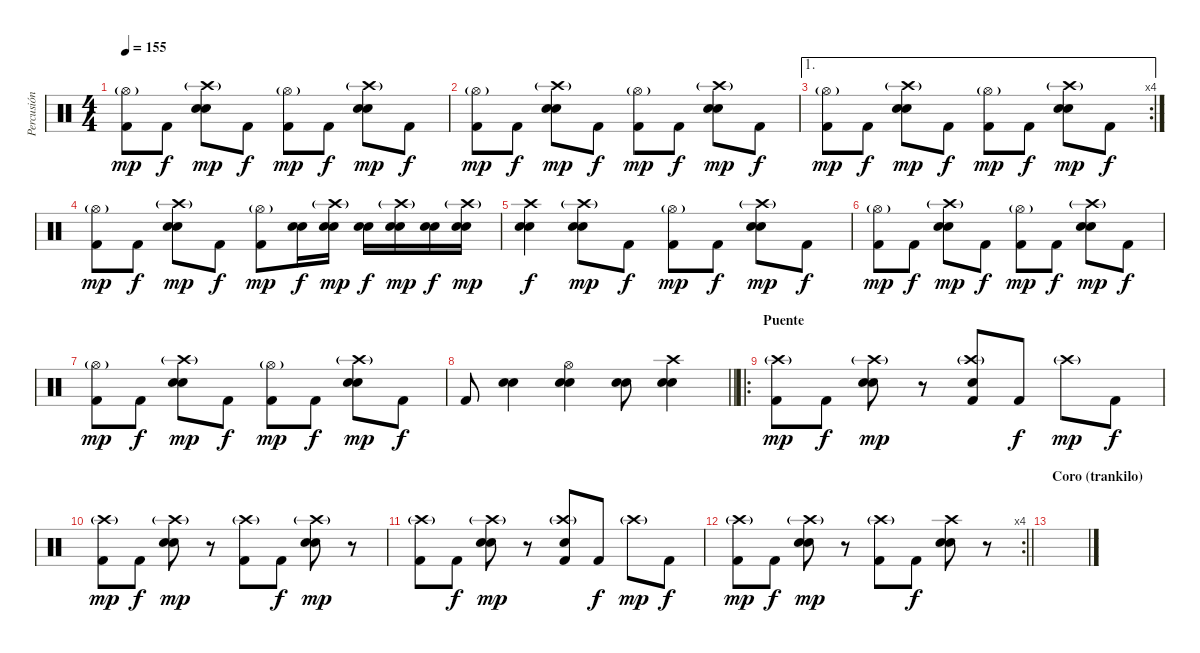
\track ("Percusión" "Percusión") {instrument percussion}
\staff {score}
\articulation defaults
\ts (4 4)
\tempo 155
\clef neutral
\ks c
("Hi-Hat (open)"{g} "Kick (hit) 2").8{dy mp} "Kick (hit) 2".8{dy f} ("Crash high (hit)"{g} "Snare (hit) 2" "Electric Snare (hit)").8{dy mp} "Kick (hit) 2".8{dy f} ("Hi-Hat (open)"{g} "Kick (hit) 2").8{dy mp} "Kick (hit) 2".8{dy f} ("Crash high (hit)"{g} "Snare (hit) 2" "Electric Snare (hit)").8{dy mp} "Kick (hit) 2".8{dy f} |
("Hi-Hat (open)"{g} "Kick (hit) 2").8{dy mp} "Kick (hit) 2".8{dy f} ("Crash high (hit)"{g} "Snare (hit) 2" "Electric Snare (hit)").8{dy mp} "Kick (hit) 2".8{dy f} ("Hi-Hat (open)"{g} "Kick (hit) 2").8{dy mp} "Kick (hit) 2".8{dy f} ("Crash high (hit)"{g} "Snare (hit) 2" "Electric Snare (hit)").8{dy mp} "Kick (hit) 2".8{dy f} |
\ae 1
\rc 4
("Hi-Hat (open)"{g} "Kick (hit) 2").8{dy mp} "Kick (hit) 2".8{dy f} ("Crash high (hit)"{g} "Snare (hit) 2" "Electric Snare (hit)").8{dy mp} "Kick (hit) 2".8{dy f} ("Hi-Hat (open)"{g} "Kick (hit) 2").8{dy mp} "Kick (hit) 2".8{dy f} ("Crash high (hit)"{g} "Snare (hit) 2" "Electric Snare (hit)").8{dy mp} "Kick (hit) 2".8{dy f} |
("Hi-Hat (open)"{g} "Kick (hit) 2").8{dy mp} "Kick (hit) 2".8{dy f} ("Crash high (hit)"{g} "Snare (hit) 2" "Electric Snare (hit)").8{dy mp} "Kick (hit) 2".8{dy f} ("Hi-Hat (open)"{g} "Kick (hit) 2").8{dy mp} ("Snare (hit) 2" "Electric Snare (hit)").16{dy f} ("Crash high (hit)"{g} "Snare (hit) 2" "Electric Snare (hit)").16{dy mp} ("Snare (hit) 2" "Electric Snare (hit)").16{dy f} ("Crash high (hit)"{g} "Snare (hit) 2" "Electric Snare (hit)").16{dy mp} ("Snare (hit) 2" "Electric Snare (hit)").16{dy f} ("Crash high (hit)"{g} "Snare (hit) 2" "Electric Snare (hit)").16{dy mp} |
("Crash high (hit)" "Snare (hit) 2" "Electric Snare (hit)").4{dy f} ("Crash high (hit)"{g} "Snare (hit) 2" "Electric Snare (hit)").8{dy mp} "Kick (hit) 2".8{dy f} ("Hi-Hat (open)"{g} "Kick (hit) 2").8{dy mp} "Kick (hit) 2".8{dy f} ("Crash high (hit)"{g} "Snare (hit) 2" "Electric Snare (hit)").8{dy mp} "Kick (hit) 2".8{dy f} |
("Hi-Hat (open)"{g} "Kick (hit) 2").8{dy mp} "Kick (hit) 2".8{dy f} ("Crash high (hit)"{g} "Snare (hit) 2" "Electric Snare (hit)").8{dy mp} "Kick (hit) 2".8{dy f} ("Hi-Hat (open)"{g} "Kick (hit) 2").8{dy mp} "Kick (hit) 2".8{dy f} ("Crash high (hit)"{g} "Snare (hit) 2" "Electric Snare (hit)").8{dy mp} "Kick (hit) 2".8{dy f} |
("Hi-Hat (open)"{g} "Kick (hit) 2").8{dy mp} "Kick (hit) 2".8{dy f} ("Crash high (hit)"{g} "Snare (hit) 2" "Electric Snare (hit)").8{dy mp} "Kick (hit) 2".8{dy f} ("Hi-Hat (open)"{g} "Kick (hit) 2").8{dy mp} "Kick (hit) 2".8{dy f} ("Crash high (hit)"{g} "Snare (hit) 2" "Electric Snare (hit)").8{dy mp} "Kick (hit) 2".8{dy f} |
\barLineRight lightlight "Kick (hit) 2".8
("Snare (hit) 2" "Electric Snare (hit)").4 ("Hi-Hat (open)" "Snare (hit) 2" "Electric Snare (hit)").4 ("Snare (hit) 2" "Electric Snare (hit)").8 ("Crash high (hit)" "Snare (hit) 2" "Electric Snare (hit)").4 |
\ro
\section ("" "Puente")
("Crash high (hit)"{g} "Kick (hit) 2").8{dy mp} "Kick (hit) 2".8{dy f} ("Crash high (hit)"{g} "Electric Snare (hit)" "Snare (hit) 2").8{dy mp} r.8 ("Crash high (hit)"{g} "Electric Snare (hit)" "Kick (hit) 2").8 "Kick (hit) 2".8{dy f} "Crash high (hit)"{g}.8{dy mp} "Kick (hit) 2".8{dy f} |
("Crash high (hit)"{g} "Kick (hit) 2").8{dy mp} "Kick (hit) 2".8{dy f} ("Crash high (hit)"{g} "Electric Snare (hit)" "Snare (hit) 2").8{dy mp} r.8 ("Crash high (hit)"{g} "Kick (hit) 2").8 "Kick (hit) 2".8{dy f} ("Crash high (hit)"{g} "Electric Snare (hit)" "Snare (hit) 2").8{dy mp} r.8 |
("Crash high (hit)"{g} "Kick (hit) 2").8 "Kick (hit) 2".8{dy f} ("Crash high (hit)"{g} "Electric Snare (hit)" "Snare (hit) 2").8{dy mp} r.8 ("Crash high (hit)"{g} "Electric Snare (hit)" "Kick (hit) 2").8 "Kick (hit) 2".8{dy f} "Crash high (hit)"{g}.8{dy mp} "Kick (hit) 2".8{dy f} |
\rc 4
\barLineRight lightlight
("Crash high (hit)"{g} "Kick (hit) 2").8{dy mp} "Kick (hit) 2".8{dy f} ("Crash high (hit)"{g} "Electric Snare (hit)" "Snare (hit) 2").8{dy mp} r.8 ("Crash high (hit)"{g} "Kick (hit) 2").8 "Kick (hit) 2".8{dy f} ("Crash high (hit)" "Electric Snare (hit)" "Snare (hit) 2").8 r.8 |
\section ("" "Coro (trankilo)")
